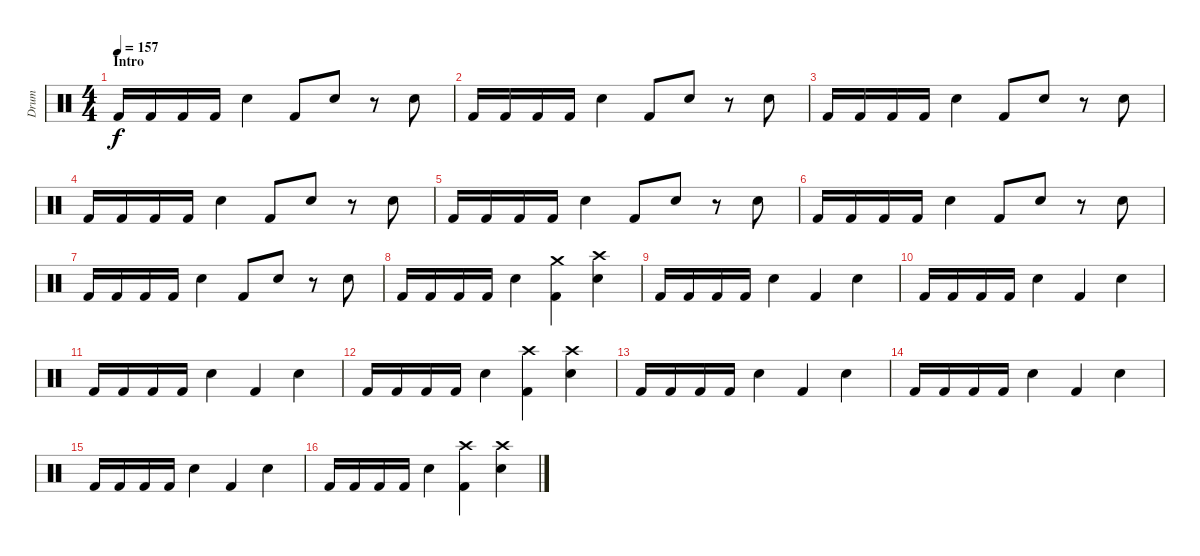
\track ("Drum" "Drum") {instrument percussion}
\staff {score}
\articulation defaults
\ts (4 4)
\section ("" "Intro ")
\tempo 157
\clef neutral
\ks c "Kick (hit) 2".16{dy f} "Kick (hit) 2".16 "Kick (hit) 2".16 "Kick (hit) 2".16 "Electric Snare (hit)".4 "Kick (hit) 2".8 "Electric Snare (hit)".8
r.8 "Electric Snare (hit)".8 |
"Kick (hit) 2".16 "Kick (hit) 2".16 "Kick (hit) 2".16 "Kick (hit) 2".16 "Electric Snare (hit)".4 "Kick (hit) 2".8 "Electric Snare (hit)".8 r.8 "Electric Snare (hit)".8 |
"Kick (hit) 2".16 "Kick (hit) 2".16 "Kick (hit) 2".16 "Kick (hit) 2".16 "Electric Snare (hit)".4 "Kick (hit) 2".8 "Electric Snare (hit)".8 r.8 "Electric Snare (hit)".8 |
"Kick (hit) 2".16 "Kick (hit) 2".16 "Kick (hit) 2".16 "Kick (hit) 2".16 "Electric Snare (hit)".4 "Kick (hit) 2".8 "Electric Snare (hit)".8 r.8 "Electric Snare (hit)".8 |
"Kick (hit) 2".16 "Kick (hit) 2".16 "Kick (hit) 2".16 "Kick (hit) 2".16 "Electric Snare (hit)".4 "Kick (hit) 2".8 "Electric Snare (hit)".8 r.8 "Electric Snare (hit)".8 |
"Kick (hit) 2".16 "Kick (hit) 2".16 "Kick (hit) 2".16 "Kick (hit) 2".16 "Electric Snare (hit)".4 "Kick (hit) 2".8 "Electric Snare (hit)".8 r.8 "Electric Snare (hit)".8 |
"Kick (hit) 2".16 "Kick (hit) 2".16 "Kick (hit) 2".16 "Kick (hit) 2".16 "Electric Snare (hit)".4 "Kick (hit) 2".8 "Electric Snare (hit)".8 r.8 "Electric Snare (hit)".8 |
"Kick (hit) 2".16 "Kick (hit) 2".16 "Kick (hit) 2".16 "Kick (hit) 2".16 "Electric Snare (hit)".4 ("Crash medium (hit)" "Kick (hit) 2").4 ("Crash high (hit)" "Electric Snare (hit)").4 |
"Kick (hit) 2".16 "Kick (hit) 2".16 "Kick (hit) 2".16 "Kick (hit) 2".16 "Electric Snare (hit)".4 "Kick (hit) 2".4 "Electric Snare (hit)".4 |
"Kick (hit) 2".16 "Kick (hit) 2".16 "Kick (hit) 2".16 "Kick (hit) 2".16 "Electric Snare (hit)".4 "Kick (hit) 2".4 "Electric Snare (hit)".4 |
"Kick (hit) 2".16 "Kick (hit) 2".16 "Kick (hit) 2".16 "Kick (hit) 2".16 "Electric Snare (hit)".4 "Kick (hit) 2".4 "Electric Snare (hit)".4 |
"Kick (hit) 2".16 "Kick (hit) 2".16 "Kick (hit) 2".16 "Kick (hit) 2".16 "Electric Snare (hit)".4 ("Crash high (hit)" "Kick (hit) 2").4 ("Crash high (hit)" "Electric Snare (hit)").4 |
"Kick (hit) 2".16 "Kick (hit) 2".16 "Kick (hit) 2".16 "Kick (hit) 2".16 "Electric Snare (hit)".4 "Kick (hit) 2".4 "Electric Snare (hit)".4 |
"Kick (hit) 2".16 "Kick (hit) 2".16 "Kick (hit) 2".16 "Kick (hit) 2".16 "Electric Snare (hit)".4 "Kick (hit) 2".4 "Electric Snare (hit)".4 |
"Kick (hit) 2".16 "Kick (hit) 2".16 "Kick (hit) 2".16 "Kick (hit) 2".16 "Electric Snare (hit)".4 "Kick (hit) 2".4 "Electric Snare (hit)".4 |
"Kick (hit) 2".16 "Kick (hit) 2".16 "Kick (hit) 2".16 "Kick (hit) 2".16 "Electric Snare (hit)".4 ("Crash high (hit)" "Kick (hit) 2").4 ("Crash high (hit)" "Electric Snare (hit)").4
